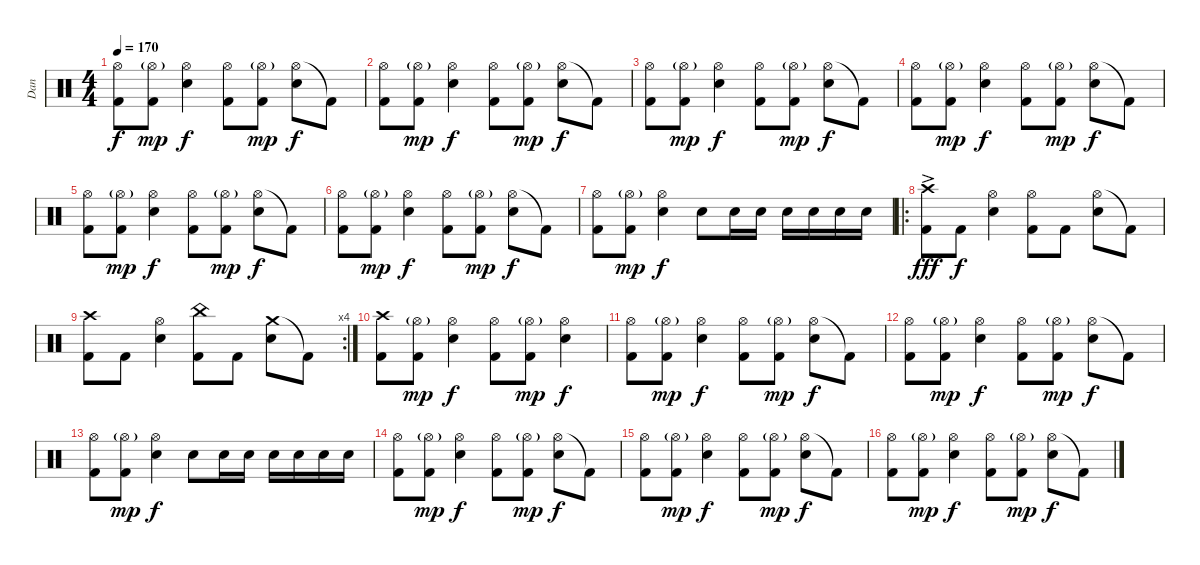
\track ("Dan" "Dan") {instrument percussion}
\staff {score}
\articulation defaults
\ts (4 4)
\tempo 170
\clef neutral
\ks c
("Hi-Hat (open)" "Kick (hit) 2").8{dy f} ("Hi-Hat (open)"{g} "Kick (hit) 2").8{dy mp} ("Hi-Hat (open)" "Snare (hit) 2").4{dy f} ("Hi-Hat (open)" "Kick (hit) 2").8 ("Hi-Hat (open)"{g} "Kick (hit) 2").8{dy mp} ("Hi-Hat (open)" "Snare (hit) 2").8{dy f} "Kick (hit) 2"{t}.8 |
("Hi-Hat (open)" "Kick (hit) 2").8 ("Hi-Hat (open)"{g} "Kick (hit) 2").8{dy mp} ("Hi-Hat (open)" "Snare (hit) 2").4{dy f} ("Hi-Hat (open)" "Kick (hit) 2").8 ("Hi-Hat (open)"{g} "Kick (hit) 2").8{dy mp} ("Hi-Hat (open)" "Snare (hit) 2").8{dy f} "Kick (hit) 2"{t}.8 |
("Hi-Hat (open)" "Kick (hit) 2").8 ("Hi-Hat (open)"{g} "Kick (hit) 2").8{dy mp} ("Hi-Hat (open)" "Snare (hit) 2").4{dy f} ("Hi-Hat (open)" "Kick (hit) 2").8 ("Hi-Hat (open)"{g} "Kick (hit) 2").8{dy mp} ("Hi-Hat (open)" "Snare (hit) 2").8{dy f} "Kick (hit) 2"{t}.8 |
("Hi-Hat (open)" "Kick (hit) 2").8 ("Hi-Hat (open)"{g} "Kick (hit) 2").8{dy mp} ("Hi-Hat (open)" "Snare (hit) 2").4{dy f} ("Hi-Hat (open)" "Kick (hit) 2").8 ("Hi-Hat (open)"{g} "Kick (hit) 2").8{dy mp} ("Hi-Hat (open)" "Snare (hit) 2").8{dy f} "Kick (hit) 2"{t}.8 |
("Hi-Hat (open)" "Kick (hit) 2").8 ("Hi-Hat (open)"{g} "Kick (hit) 2").8{dy mp} ("Hi-Hat (open)" "Snare (hit) 2").4{dy f} ("Hi-Hat (open)" "Kick (hit) 2").8 ("Hi-Hat (open)"{g} "Kick (hit) 2").8{dy mp} ("Hi-Hat (open)" "Snare (hit) 2").8{dy f} "Kick (hit) 2"{t}.8 |
("Hi-Hat (open)" "Kick (hit) 2").8 ("Hi-Hat (open)"{g} "Kick (hit) 2").8{dy mp} ("Hi-Hat (open)" "Snare (hit) 2").4{dy f} ("Hi-Hat (open)" "Kick (hit) 2").8 ("Hi-Hat (open)"{g} "Kick (hit) 2").8{dy mp} ("Hi-Hat (open)" "Snare (hit) 2").8{dy f} "Kick (hit) 2"{t}.8 |
("Hi-Hat (open)" "Kick (hit) 2").8 ("Hi-Hat (open)"{g} "Kick (hit) 2").8{dy mp} ("Hi-Hat (open)" "Snare (hit) 2").4{dy f} "Snare (hit) 2".8 "Snare (hit) 2".16 "Snare (hit) 2".16 "Snare (hit) 2".16 "Snare (hit) 2".16 "Snare (hit) 2".16 "Snare (hit) 2".16 |
\ro
("Crash high (hit)"{ac} "Kick (hit) 2").8{dy fff} "Kick (hit) 2".8{dy f} ("Hi-Hat (open)" "Snare (hit) 2").4 ("Hi-Hat (open)" "Kick (hit) 2").8 "Kick (hit) 2".8 ("Hi-Hat (open)" "Snare (hit) 2").8 "Kick (hit) 2"{t}.8 |
\rc 4
("Crash high (hit)" "Kick (hit) 2").8 "Kick (hit) 2".8 ("Hi-Hat (open)" "Snare (hit) 2").4 ("China (hit)" "Kick (hit) 2").8 "Kick (hit) 2".8 ("Crash medium (hit)" "Snare (hit) 2").8 "Kick (hit) 2"{t}.8 |
("Crash high (hit)" "Kick (hit) 2").8 ("Hi-Hat (open)"{g} "Kick (hit) 2").8{dy mp} ("Hi-Hat (open)" "Snare (hit) 2").4{dy f} ("Hi-Hat (open)" "Kick (hit) 2").8 ("Hi-Hat (open)"{g} "Kick (hit) 2").8{dy mp} ("Hi-Hat (open)" "Snare (hit) 2").4{dy f} |
("Hi-Hat (open)" "Kick (hit) 2").8 ("Hi-Hat (open)"{g} "Kick (hit) 2").8{dy mp} ("Hi-Hat (open)" "Snare (hit) 2").4{dy f} ("Hi-Hat (open)" "Kick (hit) 2").8 ("Hi-Hat (open)"{g} "Kick (hit) 2").8{dy mp} ("Hi-Hat (open)" "Snare (hit) 2").8{dy f} "Kick (hit) 2"{t}.8 |
("Hi-Hat (open)" "Kick (hit) 2").8 ("Hi-Hat (open)"{g} "Kick (hit) 2").8{dy mp} ("Hi-Hat (open)" "Snare (hit) 2").4{dy f} ("Hi-Hat (open)" "Kick (hit) 2").8 ("Hi-Hat (open)"{g} "Kick (hit) 2").8{dy mp} ("Hi-Hat (open)" "Snare (hit) 2").8{dy f} "Kick (hit) 2"{t}.8 |
("Hi-Hat (open)" "Kick (hit) 2").8 ("Hi-Hat (open)"{g} "Kick (hit) 2").8{dy mp} ("Hi-Hat (open)" "Snare (hit) 2").4{dy f} "Snare (hit) 2".8 "Snare (hit) 2".16 "Snare (hit) 2".16 "Snare (hit) 2".16 "Snare (hit) 2".16 "Snare (hit) 2".16 "Snare (hit) 2".16 |
("Hi-Hat (open)" "Kick (hit) 2").8 ("Hi-Hat (open)"{g} "Kick (hit) 2").8{dy mp} ("Hi-Hat (open)" "Snare (hit) 2").4{dy f} ("Hi-Hat (open)" "Kick (hit) 2").8 ("Hi-Hat (open)"{g} "Kick (hit) 2").8{dy mp} ("Hi-Hat (open)" "Snare (hit) 2").8{dy f} "Kick (hit) 2"{t}.8 |
("Hi-Hat (open)" "Kick (hit) 2").8 ("Hi-Hat (open)"{g} "Kick (hit) 2").8{dy mp} ("Hi-Hat (open)" "Snare (hit) 2").4{dy f} ("Hi-Hat (open)" "Kick (hit) 2").8 ("Hi-Hat (open)"{g} "Kick (hit) 2").8{dy mp} ("Hi-Hat (open)" "Snare (hit) 2").8{dy f} "Kick (hit) 2"{t}.8 |
("Hi-Hat (open)" "Kick (hit) 2").8 ("Hi-Hat (open)"{g} "Kick (hit) 2").8{dy mp} ("Hi-Hat (open)" "Snare (hit) 2").4{dy f} ("Hi-Hat (open)" "Kick (hit) 2").8 ("Hi-Hat (open)"{g} "Kick (hit) 2").8{dy mp} ("Hi-Hat (open)" "Snare (hit) 2").8{dy f} "Kick (hit) 2"{t}.8
